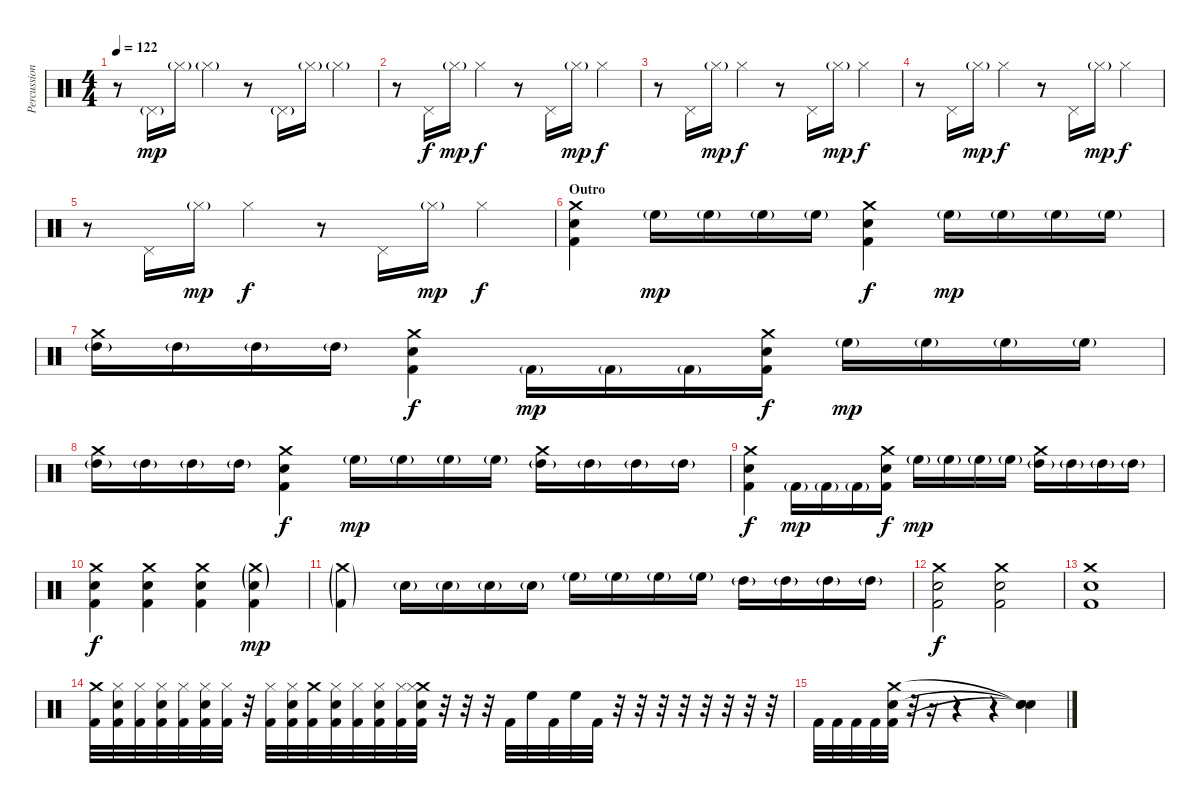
\track ("Percussion" "Percussion") {instrument percussion}
\staff {score}
\articulation defaults
\ts (4 4)
\tempo 122
\clef neutral
\ks c
r.8{dy f volume 5} "Pedal Hi-Hat (hit)"{g}.16{dy mp} "Hi-Hat (closed)"{g}.16 "Hi-Hat (closed)"{g}.4 r.8 "Pedal Hi-Hat (hit)"{g}.16 "Hi-Hat (closed)"{g}.16 "Hi-Hat (closed)"{g}.4 |
r.8 "Pedal Hi-Hat (hit)".16{dy f} "Hi-Hat (closed)"{g}.16{dy mp} "Hi-Hat (closed)".4{dy f} r.8 "Pedal Hi-Hat (hit)".16 "Hi-Hat (closed)"{g}.16{dy mp} "Hi-Hat (closed)".4{dy f} |
r.8 "Pedal Hi-Hat (hit)".16 "Hi-Hat (closed)"{g}.16{dy mp} "Hi-Hat (closed)".4{dy f} r.8 "Pedal Hi-Hat (hit)".16 "Hi-Hat (closed)"{g}.16{dy mp} "Hi-Hat (closed)".4{dy f} |
r.8 "Pedal Hi-Hat (hit)".16 "Hi-Hat (closed)"{g}.16{dy mp} "Hi-Hat (closed)".4{dy f} r.8 "Pedal Hi-Hat (hit)".16 "Hi-Hat (closed)"{g}.16{dy mp} "Hi-Hat (closed)".4{dy f} |
r.8 "Pedal Hi-Hat (hit)".16 "Hi-Hat (closed)"{g}.16{dy mp} "Hi-Hat (closed)".4{dy f} r.8 "Pedal Hi-Hat (hit)".16 "Hi-Hat (closed)"{g}.16{dy mp} "Hi-Hat (closed)".4{dy f} |
\section ("" "Outro")
("Crash medium (hit)" "Snare (hit) 2" "Kick (hit) 2").4 "High Floor Tom (hit)"{g}.16{dy mp} "High Floor Tom (hit)"{g}.16 "High Floor Tom (hit)"{g}.16 "High Floor Tom (hit)"{g}.16 ("Crash medium (hit)" "Snare (hit) 2" "Kick (hit) 2").4{dy f} "High Floor Tom (hit)"{g}.16{dy mp} "High Floor Tom (hit)"{g}.16 "High Floor Tom (hit)"{g}.16 "High Floor Tom (hit)"{g}.16 |
("Crash medium (hit)" "High Tom (hit)"{g}).16 "High Tom (hit)"{g}.16 "High Tom (hit)"{g}.16 "High Tom (hit)"{g}.16 ("Crash medium (hit)" "Snare (hit) 2" "Kick (hit) 2").4{dy f} "Kick (hit) 2"{g}.16{dy mp} "Kick (hit) 2"{g}.16 "Kick (hit) 2"{g}.16 ("Crash medium (hit)" "Snare (hit) 2" "Kick (hit) 2").16{dy f} "High Floor Tom (hit)"{g}.16{dy mp} "High Floor Tom (hit)"{g}.16 "High Floor Tom (hit)"{g}.16 "High Floor Tom (hit)"{g}.16 |
("Crash medium (hit)" "High Tom (hit)"{g}).16 "High Tom (hit)"{g}.16 "High Tom (hit)"{g}.16 "High Tom (hit)"{g}.16 ("Crash medium (hit)" "Snare (hit) 2" "Kick (hit) 2").4{dy f} "High Floor Tom (hit)"{g}.16{dy mp} "High Floor Tom (hit)"{g}.16 "High Floor Tom (hit)"{g}.16 "High Floor Tom (hit)"{g}.16 ("Crash medium (hit)" "High Tom (hit)"{g}).16 "High Tom (hit)"{g}.16 "High Tom (hit)"{g}.16 "High Tom (hit)"{g}.16 |
("Crash medium (hit)" "Snare (hit) 2" "Kick (hit) 2").4{dy f} "Kick (hit) 2"{g}.16{dy mp} "Kick (hit) 2"{g}.16 "Kick (hit) 2"{g}.16 ("Crash medium (hit)" "Snare (hit) 2" "Kick (hit) 2").16{dy f} "High Floor Tom (hit)"{g}.16{dy mp} "High Floor Tom (hit)"{g}.16 "High Floor Tom (hit)"{g}.16 "High Floor Tom (hit)"{g}.16 ("Crash medium (hit)" "High Tom (hit)"{g}).16 "High Tom (hit)"{g}.16 "High Tom (hit)"{g}.16 "High Tom (hit)"{g}.16 |
("Crash medium (hit)" "Snare (hit) 2" "Kick (hit) 2").4{dy f} ("Crash medium (hit)" "Snare (hit) 2" "Kick (hit) 2").4 ("Crash medium (hit)" "Snare (hit) 2" "Kick (hit) 2").4 ("Crash medium (hit)"{g} "Snare (hit) 2"{g} "Kick (hit) 2").4{dy mp} |
("Crash medium (hit)"{g} "Kick (hit) 2"{g}).4 "Snare (hit) 2"{g}.16 "Snare (hit) 2"{g}.16 "Snare (hit) 2"{g}.16 "Snare (hit) 2"{g}.16 "High Floor Tom (hit)"{g}.16 "High Floor Tom (hit)"{g}.16 "High Floor Tom (hit)"{g}.16 "High Floor Tom (hit)"{g}.16 "High Tom (hit)"{g}.16 "High Tom (hit)"{g}.16 "High Tom (hit)"{g}.16 "High Tom (hit)"{g}.16 |
("Crash medium (hit)" "Snare (hit) 2" "Kick (hit) 2").2{dy f} ("Crash medium (hit)" "Snare (hit) 2" "Kick (hit) 2").2 |
("Crash medium (hit)" "Snare (hit) 2" "Kick (hit) 2").1 |
("Crash medium (hit)" "Kick (hit) 2").32 ("Hi-Hat (closed)" "Snare (hit) 2" "Kick (hit) 2").32 ("Hi-Hat (closed)" "Kick (hit) 2").32 ("Hi-Hat (closed)" "Snare (hit) 2" "Kick (hit) 2").32 ("Hi-Hat (closed)" "Kick (hit) 2").32 ("Hi-Hat (closed)" "Snare (hit) 2" "Kick (hit) 2").32 ("Hi-Hat (closed)" "Kick (hit) 2").32 r.32 ("Hi-Hat (closed)" "Kick (hit) 2").32 ("Hi-Hat (closed)" "Snare (hit) 2" "Kick (hit) 2").32 ("Crash medium (hit)" "Kick (hit) 2").32 ("Hi-Hat (closed)" "Snare (hit) 2" "Kick (hit) 2").32 ("Hi-Hat (closed)" "Kick (hit) 2").32 ("Hi-Hat (closed)" "Snare (hit) 2" "Kick (hit) 2").32 ("Hi-Hat (closed)" "Kick (hit) 2").32 ("Crash medium (hit)" "Hi-Hat (closed)" "Snare (hit) 2" "Kick (hit) 2").32 r.32 r.32 r.32 "Kick (hit) 2".32 "High Floor Tom (hit)".32 "Kick (hit) 2".32 "High Floor Tom (hit)".32 "Kick (hit) 2".32 r.32 r.32 r.32 r.32 r.32 r.32 r.32 r.32 |
"Kick (hit) 2".32 "Kick (hit) 2".32 "Kick (hit) 2".32 "Kick (hit) 2".32 ("Crash medium (hit)" "Snare (hit) 2" "Kick (hit) 2").32 r.32 r.16 r.4 r.4 ("Snare (hit)"{t} "Snare (hit)"{t} "Snare (hit)"{t}).4
